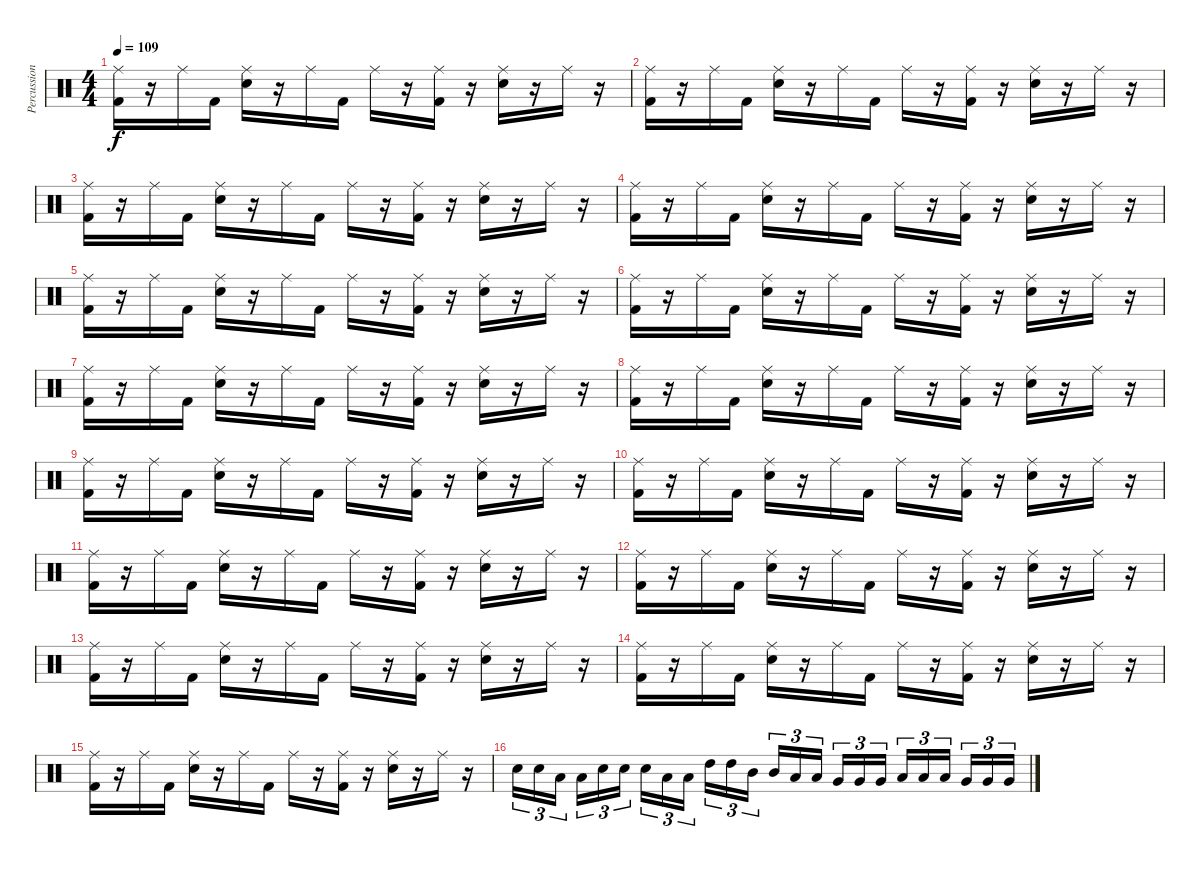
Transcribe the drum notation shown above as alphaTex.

\track ("Percussion" "Percussion") {instrument percussion}
\staff {score}
\articulation defaults
\ts (4 4)
\tempo 109
\clef neutral
\ks c
("Ride (middle)" "Kick (hit) 2").16{dy f} r.16 "Ride (middle)".16 "Kick (hit) 2".16 ("Ride (middle)" "Electric Snare (hit)").16 r.16 "Ride (middle)".16 "Kick (hit) 2".16 "Ride (middle)".16 r.16 ("Ride (middle)" "Kick (hit) 2").16 r.16 ("Ride (middle)" "Electric Snare (hit)").16 r.16 "Ride (middle)".16 r.16 |
("Ride (middle)" "Kick (hit) 2").16 r.16 "Ride (middle)".16 "Kick (hit) 2".16 ("Ride (middle)" "Electric Snare (hit)").16 r.16 "Ride (middle)".16 "Kick (hit) 2".16 "Ride (middle)".16 r.16 ("Ride (middle)" "Kick (hit) 2").16 r.16 ("Ride (middle)" "Electric Snare (hit)").16 r.16 "Ride (middle)".16 r.16 |
("Ride (middle)" "Kick (hit) 2").16 r.16 "Ride (middle)".16 "Kick (hit) 2".16 ("Ride (middle)" "Electric Snare (hit)").16 r.16 "Ride (middle)".16 "Kick (hit) 2".16 "Ride (middle)".16 r.16 ("Ride (middle)" "Kick (hit) 2").16 r.16 ("Ride (middle)" "Electric Snare (hit)").16 r.16 "Ride (middle)".16 r.16 |
("Ride (middle)" "Kick (hit) 2").16 r.16 "Ride (middle)".16 "Kick (hit) 2".16 ("Ride (middle)" "Electric Snare (hit)").16 r.16 "Ride (middle)".16 "Kick (hit) 2".16 "Ride (middle)".16 r.16 ("Ride (middle)" "Kick (hit) 2").16 r.16 ("Ride (middle)" "Electric Snare (hit)").16 r.16 "Ride (middle)".16 r.16 |
("Ride (middle)" "Kick (hit) 2").16 r.16 "Ride (middle)".16 "Kick (hit) 2".16 ("Ride (middle)" "Electric Snare (hit)").16 r.16 "Ride (middle)".16 "Kick (hit) 2".16 "Ride (middle)".16 r.16 ("Ride (middle)" "Kick (hit) 2").16 r.16 ("Ride (middle)" "Electric Snare (hit)").16 r.16 "Ride (middle)".16 r.16 |
("Ride (middle)" "Kick (hit) 2").16 r.16 "Ride (middle)".16 "Kick (hit) 2".16 ("Ride (middle)" "Electric Snare (hit)").16 r.16 "Ride (middle)".16 "Kick (hit) 2".16 "Ride (middle)".16 r.16 ("Ride (middle)" "Kick (hit) 2").16 r.16 ("Ride (middle)" "Electric Snare (hit)").16 r.16 "Ride (middle)".16 r.16 |
("Ride (middle)" "Kick (hit) 2").16 r.16 "Ride (middle)".16 "Kick (hit) 2".16 ("Ride (middle)" "Electric Snare (hit)").16 r.16 "Ride (middle)".16 "Kick (hit) 2".16 "Ride (middle)".16 r.16 ("Ride (middle)" "Kick (hit) 2").16 r.16 ("Ride (middle)" "Electric Snare (hit)").16 r.16 "Ride (middle)".16 r.16 |
("Ride (middle)" "Kick (hit) 2").16 r.16 "Ride (middle)".16 "Kick (hit) 2".16 ("Ride (middle)" "Electric Snare (hit)").16 r.16 "Ride (middle)".16 "Kick (hit) 2".16 "Ride (middle)".16 r.16 ("Ride (middle)" "Kick (hit) 2").16 r.16 ("Ride (middle)" "Electric Snare (hit)").16 r.16 "Ride (middle)".16 r.16 |
("Ride (middle)" "Kick (hit) 2").16 r.16 "Ride (middle)".16 "Kick (hit) 2".16 ("Ride (middle)" "Electric Snare (hit)").16 r.16 "Ride (middle)".16 "Kick (hit) 2".16 "Ride (middle)".16 r.16 ("Ride (middle)" "Kick (hit) 2").16 r.16 ("Ride (middle)" "Electric Snare (hit)").16 r.16 "Ride (middle)".16 r.16 |
("Ride (middle)" "Kick (hit) 2").16 r.16 "Ride (middle)".16 "Kick (hit) 2".16 ("Ride (middle)" "Electric Snare (hit)").16 r.16 "Ride (middle)".16 "Kick (hit) 2".16 "Ride (middle)".16 r.16 ("Ride (middle)" "Kick (hit) 2").16 r.16 ("Ride (middle)" "Electric Snare (hit)").16 r.16 "Ride (middle)".16 r.16 |
("Ride (middle)" "Kick (hit) 2").16 r.16 "Ride (middle)".16 "Kick (hit) 2".16 ("Ride (middle)" "Electric Snare (hit)").16 r.16 "Ride (middle)".16 "Kick (hit) 2".16 "Ride (middle)".16 r.16 ("Ride (middle)" "Kick (hit) 2").16 r.16 ("Ride (middle)" "Electric Snare (hit)").16 r.16 "Ride (middle)".16 r.16 |
("Ride (middle)" "Kick (hit) 2").16 r.16 "Ride (middle)".16 "Kick (hit) 2".16 ("Ride (middle)" "Electric Snare (hit)").16 r.16 "Ride (middle)".16 "Kick (hit) 2".16 "Ride (middle)".16 r.16 ("Ride (middle)" "Kick (hit) 2").16 r.16 ("Ride (middle)" "Electric Snare (hit)").16 r.16 "Ride (middle)".16 r.16 |
("Ride (middle)" "Kick (hit) 2").16 r.16 "Ride (middle)".16 "Kick (hit) 2".16 ("Ride (middle)" "Electric Snare (hit)").16 r.16 "Ride (middle)".16 "Kick (hit) 2".16 "Ride (middle)".16 r.16 ("Ride (middle)" "Kick (hit) 2").16 r.16 ("Ride (middle)" "Electric Snare (hit)").16 r.16 "Ride (middle)".16 r.16 |
("Ride (middle)" "Kick (hit) 2").16 r.16 "Ride (middle)".16 "Kick (hit) 2".16 ("Ride (middle)" "Electric Snare (hit)").16 r.16 "Ride (middle)".16 "Kick (hit) 2".16 "Ride (middle)".16 r.16 ("Ride (middle)" "Kick (hit) 2").16 r.16 ("Ride (middle)" "Electric Snare (hit)").16 r.16 "Ride (middle)".16 r.16 |
("Ride (middle)" "Kick (hit) 2").16 r.16 "Ride (middle)".16 "Kick (hit) 2".16 ("Ride (middle)" "Electric Snare (hit)").16 r.16 "Ride (middle)".16 "Kick (hit) 2".16 "Ride (middle)".16 r.16 ("Ride (middle)" "Kick (hit) 2").16 r.16 ("Ride (middle)" "Electric Snare (hit)").16 r.16 "Ride (middle)".16 r.16 |
"Electric Snare (hit)".16{tu (3 2)} "Electric Snare (hit)".16{tu (3 2)} "Low Tom (hit)".16{tu (3 2)} "Low Tom (hit)".16{tu (3 2)} "Electric Snare (hit)".16{tu (3 2)} "Electric Snare (hit)".16{tu (3 2)} "Electric Snare (hit)".16{tu (3 2)} "Low Tom (hit)".16{tu (3 2)} "Low Tom (hit)".16{tu (3 2)} "High Tom (hit)".16{tu (3 2)} "High Tom (hit)".16{tu (3 2)} "Mid Tom (hit)".16{tu (3 2)} "Mid Tom (hit)".16{tu (3 2)} "Low Tom (hit)".16{tu (3 2)} "Low Tom (hit)".16{tu (3 2)} "Very Low Tom (hit)".16{tu (3 2)} "Very Low Tom (hit)".16{tu (3 2)} "Very Low Tom (hit)".16{tu (3 2)} "Low Floor Tom (hit)".16{tu (3 2)} "Low Floor Tom (hit)".16{tu (3 2)} "Low Floor Tom (hit)".16{tu (3 2)} "Very Low Tom (hit)".16{tu (3 2)} "Very Low Tom (hit)".16{tu (3 2)} "Very Low Tom (hit)".16{tu (3 2)}
